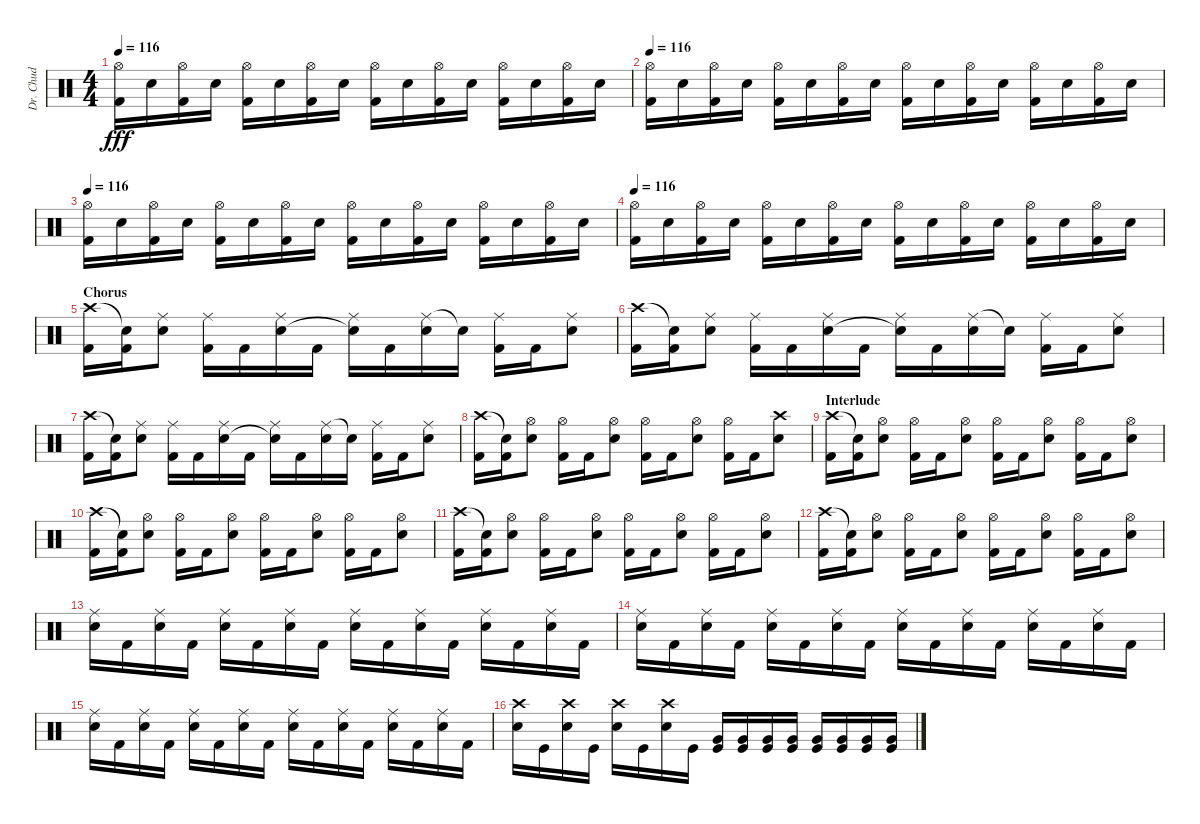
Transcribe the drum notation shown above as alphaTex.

\track ("Dr. Chud" "Dr. Chud") {instrument percussion}
\staff {score}
\articulation defaults
\ts (4 4)
\tempo 116
\clef neutral
\ks c
("Hi-Hat (open)" "Kick (hit) 2").16{dy fff} "Electric Snare (hit)".16 ("Hi-Hat (open)" "Kick (hit) 2").16 "Electric Snare (hit)".16 ("Hi-Hat (open)" "Kick (hit) 2").16 "Electric Snare (hit)".16 ("Hi-Hat (open)" "Kick (hit) 2").16 "Electric Snare (hit)".16 ("Hi-Hat (open)" "Kick (hit) 2").16 "Electric Snare (hit)".16 ("Hi-Hat (open)" "Kick (hit) 2").16 "Electric Snare (hit)".16 ("Hi-Hat (open)" "Kick (hit) 2").16 "Electric Snare (hit)".16 ("Hi-Hat (open)" "Kick (hit) 2").16 "Electric Snare (hit)".16 |
\tempo 116
("Hi-Hat (open)" "Kick (hit) 2").16 "Electric Snare (hit)".16 ("Hi-Hat (open)" "Kick (hit) 2").16 "Electric Snare (hit)".16 ("Hi-Hat (open)" "Kick (hit) 2").16 "Electric Snare (hit)".16 ("Hi-Hat (open)" "Kick (hit) 2").16 "Electric Snare (hit)".16 ("Hi-Hat (open)" "Kick (hit) 2").16 "Electric Snare (hit)".16 ("Hi-Hat (open)" "Kick (hit) 2").16 "Electric Snare (hit)".16 ("Hi-Hat (open)" "Kick (hit) 2").16 "Electric Snare (hit)".16 ("Hi-Hat (open)" "Kick (hit) 2").16 "Electric Snare (hit)".16 |
\tempo 116
("Hi-Hat (open)" "Kick (hit) 2").16 "Electric Snare (hit)".16 ("Hi-Hat (open)" "Kick (hit) 2").16 "Electric Snare (hit)".16 ("Hi-Hat (open)" "Kick (hit) 2").16 "Electric Snare (hit)".16 ("Hi-Hat (open)" "Kick (hit) 2").16 "Electric Snare (hit)".16 ("Hi-Hat (open)" "Kick (hit) 2").16 "Electric Snare (hit)".16 ("Hi-Hat (open)" "Kick (hit) 2").16 "Electric Snare (hit)".16 ("Hi-Hat (open)" "Kick (hit) 2").16 "Electric Snare (hit)".16 ("Hi-Hat (open)" "Kick (hit) 2").16 "Electric Snare (hit)".16 |
\tempo 116
("Hi-Hat (open)" "Kick (hit) 2").16 "Electric Snare (hit)".16 ("Hi-Hat (open)" "Kick (hit) 2").16 "Electric Snare (hit)".16 ("Hi-Hat (open)" "Kick (hit) 2").16 "Electric Snare (hit)".16 ("Hi-Hat (open)" "Kick (hit) 2").16 "Electric Snare (hit)".16 ("Hi-Hat (open)" "Kick (hit) 2").16 "Electric Snare (hit)".16 ("Hi-Hat (open)" "Kick (hit) 2").16 "Electric Snare (hit)".16 ("Hi-Hat (open)" "Kick (hit) 2").16 "Electric Snare (hit)".16 ("Hi-Hat (open)" "Kick (hit) 2").16 "Electric Snare (hit)".16 |
\section ("" "Chorus")
("Crash high (hit)" "Kick (hit) 2").16 ("Snare (hit)"{t} "Kick (hit) 2").16 ("Ride (middle)" "Electric Snare (hit)").8 ("Ride (middle)" "Kick (hit) 2").16 "Kick (hit) 2".16 ("Ride (middle)" "Electric Snare (hit)").16 "Kick (hit) 2".16 ("Ride (middle)" "Snare (hit)"{t}).16 "Kick (hit) 2".16 ("Ride (middle)" "Electric Snare (hit)").16 "Snare (hit)"{t}.16 ("Ride (middle)" "Kick (hit) 2").16 "Kick (hit) 2".16 ("Ride (middle)" "Electric Snare (hit)").8 |
("Crash high (hit)" "Kick (hit) 2").16 ("Snare (hit)"{t} "Kick (hit) 2").16 ("Ride (middle)" "Electric Snare (hit)").8 ("Ride (middle)" "Kick (hit) 2").16 "Kick (hit) 2".16 ("Ride (middle)" "Electric Snare (hit)").16 "Kick (hit) 2".16 ("Ride (middle)" "Snare (hit)"{t}).16 "Kick (hit) 2".16 ("Ride (middle)" "Electric Snare (hit)").16 "Snare (hit)"{t}.16 ("Ride (middle)" "Kick (hit) 2").16 "Kick (hit) 2".16 ("Ride (middle)" "Electric Snare (hit)").8 |
("Crash high (hit)" "Kick (hit) 2").16 ("Snare (hit)"{t} "Kick (hit) 2").16 ("Ride (middle)" "Electric Snare (hit)").8 ("Ride (middle)" "Kick (hit) 2").16 "Kick (hit) 2".16 ("Ride (middle)" "Electric Snare (hit)").16 "Kick (hit) 2".16 ("Ride (middle)" "Snare (hit)"{t}).16 "Kick (hit) 2".16 ("Ride (middle)" "Electric Snare (hit)").16 "Snare (hit)"{t}.16 ("Ride (middle)" "Kick (hit) 2").16 "Kick (hit) 2".16 ("Ride (middle)" "Electric Snare (hit)").8 |
("Crash high (hit)" "Kick (hit) 2").16 ("Snare (hit)"{t} "Kick (hit) 2").16 ("Hi-Hat (open)" "Electric Snare (hit)").8 ("Hi-Hat (open)" "Kick (hit) 2").16 "Kick (hit) 2".16 ("Hi-Hat (open)" "Electric Snare (hit)").8 ("Hi-Hat (open)" "Kick (hit) 2").16 "Kick (hit) 2".16 ("Hi-Hat (open)" "Electric Snare (hit)").8 ("Hi-Hat (open)" "Kick (hit) 2").16 "Kick (hit) 2".16 ("Crash high (hit)" "Electric Snare (hit)").8 |
\section ("" "Interlude")
("Crash high (hit)" "Kick (hit) 2").16 ("Snare (hit)"{t} "Kick (hit) 2").16 ("Hi-Hat (open)" "Electric Snare (hit)").8 ("Hi-Hat (open)" "Kick (hit) 2").16 "Kick (hit) 2".16 ("Hi-Hat (open)" "Electric Snare (hit)").8 ("Hi-Hat (open)" "Kick (hit) 2").16 "Kick (hit) 2".16 ("Hi-Hat (open)" "Electric Snare (hit)").8 ("Hi-Hat (open)" "Kick (hit) 2").16 "Kick (hit) 2".16 ("Hi-Hat (open)" "Electric Snare (hit)").8 |
("Crash high (hit)" "Kick (hit) 2").16 ("Snare (hit)"{t} "Kick (hit) 2").16 ("Hi-Hat (open)" "Electric Snare (hit)").8 ("Hi-Hat (open)" "Kick (hit) 2").16 "Kick (hit) 2".16 ("Hi-Hat (open)" "Electric Snare (hit)").8 ("Hi-Hat (open)" "Kick (hit) 2").16 "Kick (hit) 2".16 ("Hi-Hat (open)" "Electric Snare (hit)").8 ("Hi-Hat (open)" "Kick (hit) 2").16 "Kick (hit) 2".16 ("Hi-Hat (open)" "Electric Snare (hit)").8 |
("Crash high (hit)" "Kick (hit) 2").16 ("Snare (hit)"{t} "Kick (hit) 2").16 ("Hi-Hat (open)" "Electric Snare (hit)").8 ("Hi-Hat (open)" "Kick (hit) 2").16 "Kick (hit) 2".16 ("Hi-Hat (open)" "Electric Snare (hit)").8 ("Hi-Hat (open)" "Kick (hit) 2").16 "Kick (hit) 2".16 ("Hi-Hat (open)" "Electric Snare (hit)").8 ("Hi-Hat (open)" "Kick (hit) 2").16 "Kick (hit) 2".16 ("Hi-Hat (open)" "Electric Snare (hit)").8 |
("Crash high (hit)" "Kick (hit) 2").16 ("Snare (hit)"{t} "Kick (hit) 2").16 ("Hi-Hat (open)" "Electric Snare (hit)").8 ("Hi-Hat (open)" "Kick (hit) 2").16 "Kick (hit) 2".16 ("Hi-Hat (open)" "Electric Snare (hit)").8 ("Hi-Hat (open)" "Kick (hit) 2").16 "Kick (hit) 2".16 ("Hi-Hat (open)" "Electric Snare (hit)").8 ("Hi-Hat (open)" "Kick (hit) 2").16 "Kick (hit) 2".16 ("Hi-Hat (open)" "Electric Snare (hit)").8 |
("Ride (middle)" "Electric Snare (hit)").16 "Kick (hit) 2".16 ("Ride (middle)" "Electric Snare (hit)").16 "Kick (hit) 2".16 ("Ride (middle)" "Electric Snare (hit)").16 "Kick (hit) 2".16 ("Ride (middle)" "Electric Snare (hit)").16 "Kick (hit) 2".16 ("Ride (middle)" "Electric Snare (hit)").16 "Kick (hit) 2".16 ("Ride (middle)" "Electric Snare (hit)").16 "Kick (hit) 2".16 ("Ride (middle)" "Electric Snare (hit)").16 "Kick (hit) 2".16 ("Ride (middle)" "Electric Snare (hit)").16 "Kick (hit) 2".16 |
("Ride (middle)" "Electric Snare (hit)").16 "Kick (hit) 2".16 ("Ride (middle)" "Electric Snare (hit)").16 "Kick (hit) 2".16 ("Ride (middle)" "Electric Snare (hit)").16 "Kick (hit) 2".16 ("Ride (middle)" "Electric Snare (hit)").16 "Kick (hit) 2".16 ("Ride (middle)" "Electric Snare (hit)").16 "Kick (hit) 2".16 ("Ride (middle)" "Electric Snare (hit)").16 "Kick (hit) 2".16 ("Ride (middle)" "Electric Snare (hit)").16 "Kick (hit) 2".16 ("Ride (middle)" "Electric Snare (hit)").16 "Kick (hit) 2".16 |
("Ride (middle)" "Electric Snare (hit)").16 "Kick (hit) 2".16 ("Ride (middle)" "Electric Snare (hit)").16 "Kick (hit) 2".16 ("Ride (middle)" "Electric Snare (hit)").16 "Kick (hit) 2".16 ("Ride (middle)" "Electric Snare (hit)").16 "Kick (hit) 2".16 ("Ride (middle)" "Electric Snare (hit)").16 "Kick (hit) 2".16 ("Ride (middle)" "Electric Snare (hit)").16 "Kick (hit) 2".16 ("Ride (middle)" "Electric Snare (hit)").16 "Kick (hit) 2".16 ("Ride (middle)" "Electric Snare (hit)").16 "Kick (hit) 2".16 |
("Crash high (hit)" "Electric Snare (hit)").16 "Kick (hit)".16 ("Crash high (hit)" "Electric Snare (hit)").16 "Kick (hit)".16 ("Crash high (hit)" "Electric Snare (hit)").16 "Kick (hit)".16 ("Crash high (hit)" "Electric Snare (hit)").16 "Kick (hit)".16 ("Very Low Tom (hit)" "Kick (hit)").16 ("Very Low Tom (hit)" "Kick (hit)").16 ("Very Low Tom (hit)" "Kick (hit)").16 ("Very Low Tom (hit)" "Kick (hit)").16 ("Very Low Tom (hit)" "Kick (hit)").16 ("Very Low Tom (hit)" "Kick (hit)").16 ("Very Low Tom (hit)" "Kick (hit)").16 ("Very Low Tom (hit)" "Kick (hit)").16
